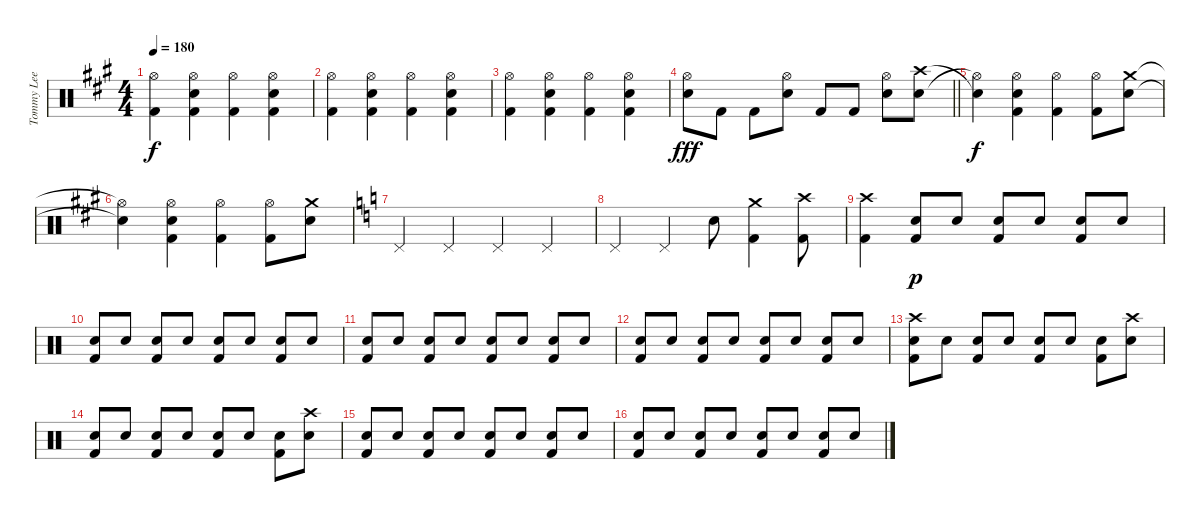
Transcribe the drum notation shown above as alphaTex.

\track ("Tommy Lee" "Tommy Lee") {instrument percussion}
\staff {score}
\articulation defaults
\ts (4 4)
\tempo 180
\clef neutral
\ks a
("Hi-Hat (open)" "Kick (hit) 2").4{dy f} ("Hi-Hat (open)" "Electric Snare (hit)" "Kick (hit) 2").4 ("Hi-Hat (open)" "Kick (hit) 2").4 ("Hi-Hat (open)" "Electric Snare (hit)" "Kick (hit) 2").4 |
("Hi-Hat (open)" "Kick (hit) 2").4 ("Hi-Hat (open)" "Electric Snare (hit)" "Kick (hit) 2").4 ("Hi-Hat (open)" "Kick (hit) 2").4 ("Hi-Hat (open)" "Electric Snare (hit)" "Kick (hit) 2").4 |
("Hi-Hat (open)" "Kick (hit) 2").4 ("Hi-Hat (open)" "Electric Snare (hit)" "Kick (hit) 2").4 ("Hi-Hat (open)" "Kick (hit) 2").4 ("Hi-Hat (open)" "Electric Snare (hit)" "Kick (hit) 2").4 |
\barLineRight lightlight
("Hi-Hat (open)" "Electric Snare (hit)").8{dy fff} "Kick (hit) 2".8 "Kick (hit) 2".8 ("Hi-Hat (open)" "Electric Snare (hit)").8 "Kick (hit) 2".8 "Kick (hit) 2".8 ("Hi-Hat (open)" "Electric Snare (hit)").8 ("Crash high (hit)" "Electric Snare (hit)").8 |
("Snare (hit)"{t} "Hi-Hat (open)"{t}).4{dy f} ("Hi-Hat (open)" "Electric Snare (hit)" "Kick (hit) 2").4 ("Hi-Hat (open)" "Kick (hit) 2").4 ("Hi-Hat (open)" "Kick (hit) 2").8 ("Crash medium (hit)" "Electric Snare (hit)").8 |
("Hi-Hat (open)"{t} "Snare (hit)"{t}).4 ("Hi-Hat (open)" "Electric Snare (hit)" "Kick (hit) 2").4 ("Hi-Hat (open)" "Kick (hit) 2").4 ("Hi-Hat (open)" "Kick (hit) 2").8 ("Crash medium (hit)" "Electric Snare (hit)").8 |
\ks c "Pedal Hi-Hat (hit)".4 "Pedal Hi-Hat (hit)".4 "Pedal Hi-Hat (hit)".4 "Pedal Hi-Hat (hit)".4
|
"Pedal Hi-Hat (hit)".4 "Pedal Hi-Hat (hit)".4 "Electric Snare (hit)".8 ("Crash medium (hit)" "Kick (hit) 2").4 ("Crash high (hit)" "Kick (hit) 2").8 |
("Crash high (hit)" "Kick (hit) 2").4 ("Electric Snare (hit)" "Kick (hit) 2").8{dy p} "Electric Snare (hit)".8 ("Electric Snare (hit)" "Kick (hit) 2").8 "Electric Snare (hit)".8 ("Electric Snare (hit)" "Kick (hit) 2").8 "Electric Snare (hit)".8 |
("Electric Snare (hit)" "Kick (hit) 2").8 "Electric Snare (hit)".8 ("Electric Snare (hit)" "Kick (hit) 2").8 "Electric Snare (hit)".8 ("Electric Snare (hit)" "Kick (hit) 2").8 "Electric Snare (hit)".8 ("Electric Snare (hit)" "Kick (hit) 2").8 "Electric Snare (hit)".8 |
("Electric Snare (hit)" "Kick (hit) 2").8 "Electric Snare (hit)".8 ("Electric Snare (hit)" "Kick (hit) 2").8 "Electric Snare (hit)".8 ("Electric Snare (hit)" "Kick (hit) 2").8 "Electric Snare (hit)".8 ("Electric Snare (hit)" "Kick (hit) 2").8 "Electric Snare (hit)".8 |
("Electric Snare (hit)" "Kick (hit) 2").8 "Electric Snare (hit)".8 ("Electric Snare (hit)" "Kick (hit) 2").8 "Electric Snare (hit)".8 ("Electric Snare (hit)" "Kick (hit) 2").8 "Electric Snare (hit)".8 ("Electric Snare (hit)" "Kick (hit) 2").8 "Electric Snare (hit)".8 |
("Crash high (hit)" "Electric Snare (hit)" "Kick (hit) 2").8 "Electric Snare (hit)".8 ("Electric Snare (hit)" "Kick (hit) 2").8 "Electric Snare (hit)".8 ("Electric Snare (hit)" "Kick (hit) 2").8 "Electric Snare (hit)".8 ("Electric Snare (hit)" "Kick (hit) 2").8 ("Crash high (hit)" "Electric Snare (hit)").8 |
("Electric Snare (hit)" "Kick (hit) 2").8 "Electric Snare (hit)".8 ("Electric Snare (hit)" "Kick (hit) 2").8 "Electric Snare (hit)".8 ("Electric Snare (hit)" "Kick (hit) 2").8 "Electric Snare (hit)".8 ("Electric Snare (hit)" "Kick (hit) 2").8 ("Crash high (hit)" "Electric Snare (hit)").8 |
("Electric Snare (hit)" "Kick (hit) 2").8 "Electric Snare (hit)".8 ("Electric Snare (hit)" "Kick (hit) 2").8 "Electric Snare (hit)".8 ("Electric Snare (hit)" "Kick (hit) 2").8 "Electric Snare (hit)".8 ("Electric Snare (hit)" "Kick (hit) 2").8 "Electric Snare (hit)".8 |
("Electric Snare (hit)" "Kick (hit) 2").8 "Electric Snare (hit)".8 ("Electric Snare (hit)" "Kick (hit) 2").8 "Electric Snare (hit)".8 ("Electric Snare (hit)" "Kick (hit) 2").8 "Electric Snare (hit)".8 ("Electric Snare (hit)" "Kick (hit) 2").8 "Electric Snare (hit)".8
